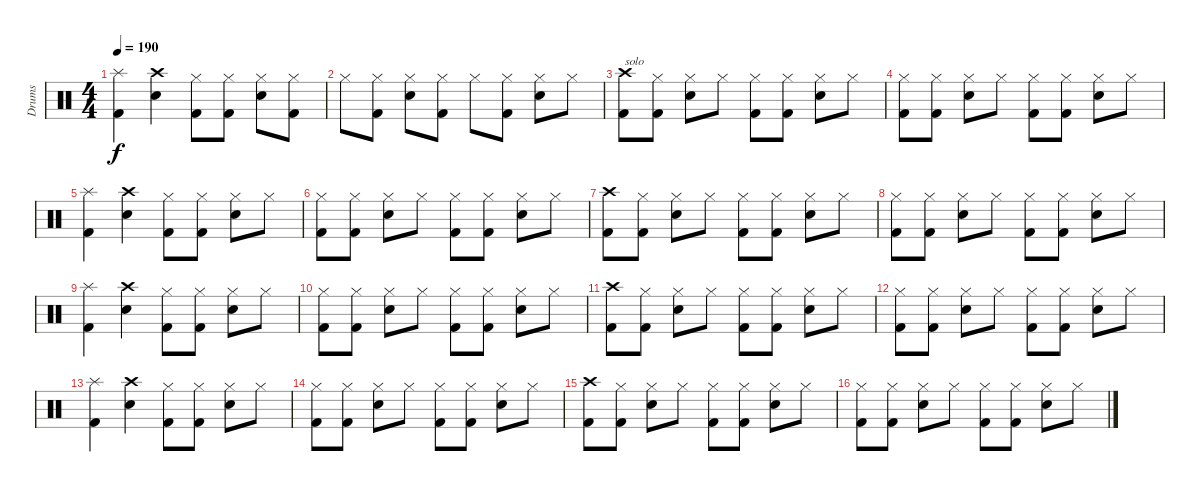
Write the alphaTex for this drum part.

\track ("Drums" "Drums") {instrument percussion}
\staff {score}
\articulation defaults
\ts (4 4)
\tempo 190
\clef neutral
\ks c
("Kick (hit) 2" "Splash (hit)").4{dy f} ("Snare (hit) 2" "Crash high (hit)").4 ("Kick (hit) 2" "Hi-Hat (closed)").8 ("Kick (hit) 2" "Hi-Hat (closed)").8 ("Snare (hit) 2" "Hi-Hat (closed)").8 ("Kick (hit) 2" "Hi-Hat (closed)").8 |
"Hi-Hat (closed)".8 ("Kick (hit) 2" "Hi-Hat (closed)").8 ("Snare (hit) 2" "Hi-Hat (closed)").8 ("Kick (hit) 2" "Hi-Hat (closed)").8 "Hi-Hat (closed)".8 ("Kick (hit) 2" "Hi-Hat (closed)").8 ("Snare (hit) 2" "Hi-Hat (closed)").8 "Hi-Hat (closed)".8 |
("Kick (hit) 2" "Crash high (hit)").8{txt "solo"} ("Kick (hit) 2" "Hi-Hat (closed)").8 ("Snare (hit) 2" "Hi-Hat (closed)").8 "Hi-Hat (closed)".8 ("Kick (hit) 2" "Hi-Hat (closed)").8 ("Kick (hit) 2" "Hi-Hat (closed)").8 ("Snare (hit) 2" "Hi-Hat (closed)").8 "Hi-Hat (closed)".8 |
("Kick (hit) 2" "Hi-Hat (closed)").8 ("Kick (hit) 2" "Hi-Hat (closed)").8 ("Snare (hit) 2" "Hi-Hat (closed)").8 "Hi-Hat (closed)".8 ("Kick (hit) 2" "Hi-Hat (closed)").8 ("Kick (hit) 2" "Hi-Hat (closed)").8 ("Snare (hit) 2" "Hi-Hat (closed)").8 "Hi-Hat (closed)".8 |
("Kick (hit) 2" "Splash (hit)").4 ("Snare (hit) 2" "Crash high (hit)").4 ("Kick (hit) 2" "Hi-Hat (closed)").8 ("Kick (hit) 2" "Hi-Hat (closed)").8 ("Snare (hit) 2" "Hi-Hat (closed)").8 "Hi-Hat (closed)".8 |
("Kick (hit) 2" "Hi-Hat (closed)").8 ("Kick (hit) 2" "Hi-Hat (closed)").8 ("Snare (hit) 2" "Hi-Hat (closed)").8 "Hi-Hat (closed)".8 ("Kick (hit) 2" "Hi-Hat (closed)").8 ("Kick (hit) 2" "Hi-Hat (closed)").8 ("Snare (hit) 2" "Hi-Hat (closed)").8 "Hi-Hat (closed)".8 |
("Kick (hit) 2" "Crash high (hit)").8 ("Kick (hit) 2" "Hi-Hat (closed)").8 ("Snare (hit) 2" "Hi-Hat (closed)").8 "Hi-Hat (closed)".8 ("Kick (hit) 2" "Hi-Hat (closed)").8 ("Kick (hit) 2" "Hi-Hat (closed)").8 ("Snare (hit) 2" "Hi-Hat (closed)").8 "Hi-Hat (closed)".8 |
("Kick (hit) 2" "Hi-Hat (closed)").8 ("Kick (hit) 2" "Hi-Hat (closed)").8 ("Snare (hit) 2" "Hi-Hat (closed)").8 "Hi-Hat (closed)".8 ("Kick (hit) 2" "Hi-Hat (closed)").8 ("Kick (hit) 2" "Hi-Hat (closed)").8 ("Snare (hit) 2" "Hi-Hat (closed)").8 "Hi-Hat (closed)".8 |
("Kick (hit) 2" "Splash (hit)").4 ("Snare (hit) 2" "Crash high (hit)").4 ("Kick (hit) 2" "Hi-Hat (closed)").8 ("Kick (hit) 2" "Hi-Hat (closed)").8 ("Snare (hit) 2" "Hi-Hat (closed)").8 "Hi-Hat (closed)".8 |
("Kick (hit) 2" "Hi-Hat (closed)").8 ("Kick (hit) 2" "Hi-Hat (closed)").8 ("Snare (hit) 2" "Hi-Hat (closed)").8 "Hi-Hat (closed)".8 ("Kick (hit) 2" "Hi-Hat (closed)").8 ("Kick (hit) 2" "Hi-Hat (closed)").8 ("Snare (hit) 2" "Hi-Hat (closed)").8 "Hi-Hat (closed)".8 |
("Kick (hit) 2" "Crash high (hit)").8 ("Kick (hit) 2" "Hi-Hat (closed)").8 ("Snare (hit) 2" "Hi-Hat (closed)").8 "Hi-Hat (closed)".8 ("Kick (hit) 2" "Hi-Hat (closed)").8 ("Kick (hit) 2" "Hi-Hat (closed)").8 ("Snare (hit) 2" "Hi-Hat (closed)").8 "Hi-Hat (closed)".8 |
("Kick (hit) 2" "Hi-Hat (closed)").8 ("Kick (hit) 2" "Hi-Hat (closed)").8 ("Snare (hit) 2" "Hi-Hat (closed)").8 "Hi-Hat (closed)".8 ("Kick (hit) 2" "Hi-Hat (closed)").8 ("Kick (hit) 2" "Hi-Hat (closed)").8 ("Snare (hit) 2" "Hi-Hat (closed)").8 "Hi-Hat (closed)".8 |
("Kick (hit) 2" "Splash (hit)").4 ("Snare (hit) 2" "Crash high (hit)").4 ("Kick (hit) 2" "Hi-Hat (closed)").8 ("Kick (hit) 2" "Hi-Hat (closed)").8 ("Snare (hit) 2" "Hi-Hat (closed)").8 "Hi-Hat (closed)".8 |
("Kick (hit) 2" "Hi-Hat (closed)").8 ("Kick (hit) 2" "Hi-Hat (closed)").8 ("Snare (hit) 2" "Hi-Hat (closed)").8 "Hi-Hat (closed)".8 ("Kick (hit) 2" "Hi-Hat (closed)").8 ("Kick (hit) 2" "Hi-Hat (closed)").8 ("Snare (hit) 2" "Hi-Hat (closed)").8 "Hi-Hat (closed)".8 |
("Kick (hit) 2" "Crash high (hit)").8 ("Kick (hit) 2" "Hi-Hat (closed)").8 ("Snare (hit) 2" "Hi-Hat (closed)").8 "Hi-Hat (closed)".8 ("Kick (hit) 2" "Hi-Hat (closed)").8 ("Kick (hit) 2" "Hi-Hat (closed)").8 ("Snare (hit) 2" "Hi-Hat (closed)").8 "Hi-Hat (closed)".8 |
("Kick (hit) 2" "Hi-Hat (closed)").8 ("Kick (hit) 2" "Hi-Hat (closed)").8 ("Snare (hit) 2" "Hi-Hat (closed)").8 "Hi-Hat (closed)".8 ("Kick (hit) 2" "Hi-Hat (closed)").8 ("Kick (hit) 2" "Hi-Hat (closed)").8 ("Snare (hit) 2" "Hi-Hat (closed)").8 "Hi-Hat (closed)".8
